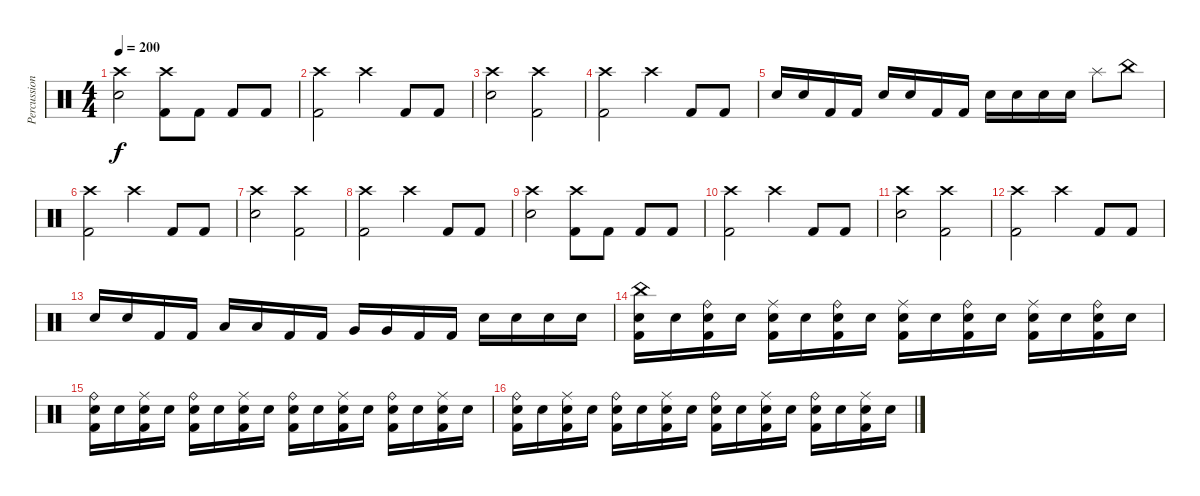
\track ("Percussion" "Percussion") {instrument percussion}
\staff {score}
\articulation defaults
\ts (4 4)
\tempo 200
\clef neutral
\ks c
("Crash high (hit)" "Electric Snare (hit)").2{dy f} ("Crash high (hit)" "Kick (hit) 2").8 "Kick (hit) 2".8 "Kick (hit) 2".8 "Kick (hit) 2".8 |
("Crash high (hit)" "Kick (hit) 2").2 "Crash high (hit)".4 "Kick (hit) 2".8 "Kick (hit) 2".8 |
("Crash high (hit)" "Electric Snare (hit)").2 ("Crash high (hit)" "Kick (hit) 2").2 |
("Crash high (hit)" "Kick (hit) 2").2 "Crash high (hit)".4 "Kick (hit) 2".8 "Kick (hit) 2".8 |
"Electric Snare (hit)".16 "Electric Snare (hit)".16 "Kick (hit) 2".16 "Kick (hit) 2".16 "Electric Snare (hit)".16 "Electric Snare (hit)".16 "Kick (hit) 2".16 "Kick (hit) 2".16 "Electric Snare (hit)".16 "Electric Snare (hit)".16 "Electric Snare (hit)".16 "Electric Snare (hit)".16 "Splash (hit)".8 "China (hit)".8 |
("Crash high (hit)" "Kick (hit) 2").2 "Crash high (hit)".4 "Kick (hit) 2".8 "Kick (hit) 2".8 |
("Crash high (hit)" "Electric Snare (hit)").2 ("Crash high (hit)" "Kick (hit) 2").2 |
("Crash high (hit)" "Kick (hit) 2").2 "Crash high (hit)".4 "Kick (hit) 2".8 "Kick (hit) 2".8 |
("Crash high (hit)" "Electric Snare (hit)").2 ("Crash high (hit)" "Kick (hit) 2").8 "Kick (hit) 2".8 "Kick (hit) 2".8 "Kick (hit) 2".8 |
("Crash high (hit)" "Kick (hit) 2").2 "Crash high (hit)".4 "Kick (hit) 2".8 "Kick (hit) 2".8 |
("Crash high (hit)" "Electric Snare (hit)").2 ("Crash high (hit)" "Kick (hit) 2").2 |
("Crash high (hit)" "Kick (hit) 2").2 "Crash high (hit)".4 "Kick (hit) 2".8 "Kick (hit) 2".8 |
"Electric Snare (hit)".16 "Electric Snare (hit)".16 "Kick (hit) 2".16 "Kick (hit) 2".16 "Low Tom (hit)".16 "Low Tom (hit)".16 "Kick (hit) 2".16 "Kick (hit) 2".16 "Very Low Tom (hit)".16 "Very Low Tom (hit)".16 "Kick (hit) 2".16 "Kick (hit) 2".16 "Electric Snare (hit)".16 "Electric Snare (hit)".16 "Electric Snare (hit)".16 "Electric Snare (hit)".16 |
("China (hit)" "Electric Snare (hit)" "Kick (hit) 2").16 "Electric Snare (hit)".16 ("Ride (bell)" "Electric Snare (hit)" "Kick (hit) 2").16 "Electric Snare (hit)".16 ("Ride (middle)" "Electric Snare (hit)" "Kick (hit) 2").16 "Electric Snare (hit)".16 ("Ride (bell)" "Electric Snare (hit)" "Kick (hit) 2").16 "Electric Snare (hit)".16 ("Ride (middle)" "Electric Snare (hit)" "Kick (hit) 2").16 "Electric Snare (hit)".16 ("Ride (bell)" "Electric Snare (hit)" "Kick (hit) 2").16 "Electric Snare (hit)".16 ("Ride (middle)" "Electric Snare (hit)" "Kick (hit) 2").16 "Electric Snare (hit)".16 ("Ride (bell)" "Electric Snare (hit)" "Kick (hit) 2").16 "Electric Snare (hit)".16 |
("Ride (bell)" "Electric Snare (hit)" "Kick (hit) 2").16 "Electric Snare (hit)".16 ("Ride (middle)" "Electric Snare (hit)" "Kick (hit) 2").16 "Electric Snare (hit)".16 ("Ride (bell)" "Electric Snare (hit)" "Kick (hit) 2").16 "Electric Snare (hit)".16 ("Ride (middle)" "Electric Snare (hit)" "Kick (hit) 2").16 "Electric Snare (hit)".16 ("Ride (bell)" "Electric Snare (hit)" "Kick (hit) 2").16 "Electric Snare (hit)".16 ("Ride (middle)" "Electric Snare (hit)" "Kick (hit) 2").16 "Electric Snare (hit)".16 ("Ride (bell)" "Electric Snare (hit)" "Kick (hit) 2").16 "Electric Snare (hit)".16 ("Ride (middle)" "Electric Snare (hit)" "Kick (hit) 2").16 "Electric Snare (hit)".16 |
("Ride (bell)" "Electric Snare (hit)" "Kick (hit) 2").16 "Electric Snare (hit)".16 ("Ride (middle)" "Electric Snare (hit)" "Kick (hit) 2").16 "Electric Snare (hit)".16 ("Ride (bell)" "Electric Snare (hit)" "Kick (hit) 2").16 "Electric Snare (hit)".16 ("Ride (middle)" "Electric Snare (hit)" "Kick (hit) 2").16 "Electric Snare (hit)".16 ("Ride (bell)" "Electric Snare (hit)" "Kick (hit) 2").16 "Electric Snare (hit)".16 ("Ride (middle)" "Electric Snare (hit)" "Kick (hit) 2").16 "Electric Snare (hit)".16 ("Ride (bell)" "Electric Snare (hit)" "Kick (hit) 2").16 "Electric Snare (hit)".16 ("Ride (middle)" "Electric Snare (hit)" "Kick (hit) 2").16 "Electric Snare (hit)".16
